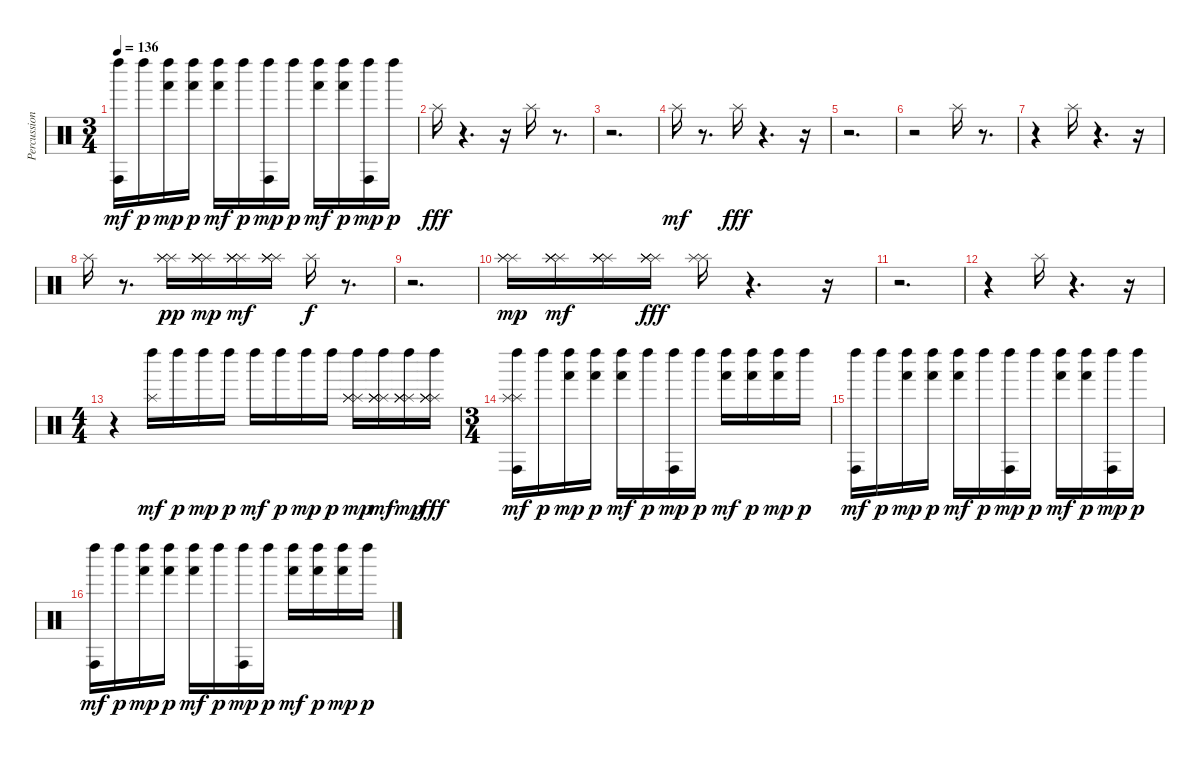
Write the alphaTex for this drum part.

\track ("Percussion" "Percussion") {instrument percussion}
\staff {score}
\articulation defaults
\ts (3 4)
\tempo 136
\clef neutral
\ks c
("Conga high (hit)" "Left Maraca (hit)").16{dy mf} "Left Maraca (hit)".16{dy p} ("Hand (hit)" "Left Maraca (hit)").16{dy mp} ("Hand (hit)" "Left Maraca (hit)").16{dy p} ("Hand (hit)" "Left Maraca (hit)").16{dy mf} "Left Maraca (hit)".16{dy p} ("Conga high (hit)" "Left Maraca (hit)").16{dy mp} "Left Maraca (hit)".16{dy p} ("Hand (hit)" "Left Maraca (hit)").16{dy mf} ("Hand (hit)" "Left Maraca (hit)").16{dy p} ("Conga high (hit)" "Left Maraca (hit)").16{dy mp} "Left Maraca (hit)".16{dy p} |
"Splash (hit)".16{dy fff} r.4{d} r.16 "Splash (hit)".16 r.8{d} |
r.2{d} |
"Splash (hit)".16{dy mf} r.8{d} "Splash (hit)".16{dy fff} r.4{d} r.16 |
r.2{d} |
r.2 "Splash (hit)".16 r.8{d} |
r.4 "Splash (hit)".16 r.4{d} r.16 |
"Splash (hit)".16 r.8{d} ("Splash (hit)" "Splash (hit)" "Splash (hit)").16{dy pp} ("Splash (hit)" "Splash (hit)" "Splash (hit)" "Splash (hit)").16{dy mp} ("Splash (hit)" "Splash (hit)" "Splash (hit)" "Splash (hit)").16{dy mf} ("Splash (hit)" "Splash (hit)" "Splash (hit)" "Splash (hit)").16 "Splash (hit)".16{dy f} r.8{d} |
r.2{d} |
("Splash (hit)" "Splash (hit)" "Splash (hit)").16{dy mp} ("Splash (hit)" "Splash (hit)" "Splash (hit)" "Splash (hit)").16{dy mf} ("Splash (hit)" "Splash (hit)" "Splash (hit)" "Splash (hit)").16 ("Splash (hit)" "Splash (hit)" "Splash (hit)" "Splash (hit)").16{dy fff} ("Splash (hit)" "Splash (hit)").16 r.4{d} r.16 |
r.2{d} |
r.4 "Splash (hit)".16 r.4{d} r.16 |
\ts (4 4)
r.4 ("Splash (hit)" "Left Maraca (hit)").16{dy mf} "Left Maraca (hit)".16{dy p} "Left Maraca (hit)".16{dy mp} "Left Maraca (hit)".16{dy p} "Left Maraca (hit)".16{dy mf} "Left Maraca (hit)".16{dy p} "Left Maraca (hit)".16{dy mp} "Left Maraca (hit)".16{dy p} ("Splash (hit)" "Left Maraca (hit)" "Splash (hit)" "Splash (hit)").16{dy mp} ("Splash (hit)" "Splash (hit)" "Left Maraca (hit)" "Splash (hit)" "Splash (hit)").16{dy mf} ("Splash (hit)" "Splash (hit)" "Left Maraca (hit)" "Splash (hit)" "Splash (hit)").16{dy mp} ("Splash (hit)" "Splash (hit)" "Left Maraca (hit)" "Splash (hit)" "Splash (hit)").16{dy fff} |
\ts (3 4)
("Splash (hit)" "Splash (hit)" "Conga high (hit)" "Left Maraca (hit)").16{dy mf} "Left Maraca (hit)".16{dy p} ("Hand (hit)" "Left Maraca (hit)").16{dy mp} ("Hand (hit)" "Left Maraca (hit)").16{dy p} ("Hand (hit)" "Left Maraca (hit)").16{dy mf} "Left Maraca (hit)".16{dy p} ("Conga high (hit)" "Left Maraca (hit)").16{dy mp} "Left Maraca (hit)".16{dy p} ("Hand (hit)" "Left Maraca (hit)").16{dy mf} ("Hand (hit)" "Left Maraca (hit)").16{dy p} ("Hand (hit)" "Left Maraca (hit)").16{dy mp} "Left Maraca (hit)".16{dy p} |
("Conga high (hit)" "Left Maraca (hit)").16{dy mf} "Left Maraca (hit)".16{dy p} ("Hand (hit)" "Left Maraca (hit)").16{dy mp} ("Hand (hit)" "Left Maraca (hit)").16{dy p} ("Hand (hit)" "Left Maraca (hit)").16{dy mf} "Left Maraca (hit)".16{dy p} ("Conga high (hit)" "Left Maraca (hit)").16{dy mp} "Left Maraca (hit)".16{dy p} ("Hand (hit)" "Left Maraca (hit)").16{dy mf} ("Hand (hit)" "Left Maraca (hit)").16{dy p} ("Conga high (hit)" "Left Maraca (hit)").16{dy mp} "Left Maraca (hit)".16{dy p} |
("Conga high (hit)" "Left Maraca (hit)").16{dy mf} "Left Maraca (hit)".16{dy p} ("Hand (hit)" "Left Maraca (hit)").16{dy mp} ("Hand (hit)" "Left Maraca (hit)").16{dy p} ("Hand (hit)" "Left Maraca (hit)").16{dy mf} "Left Maraca (hit)".16{dy p} ("Conga high (hit)" "Left Maraca (hit)").16{dy mp} "Left Maraca (hit)".16{dy p} ("Hand (hit)" "Left Maraca (hit)").16{dy mf} ("Hand (hit)" "Left Maraca (hit)").16{dy p} ("Hand (hit)" "Left Maraca (hit)").16{dy mp} "Left Maraca (hit)".16{dy p}
